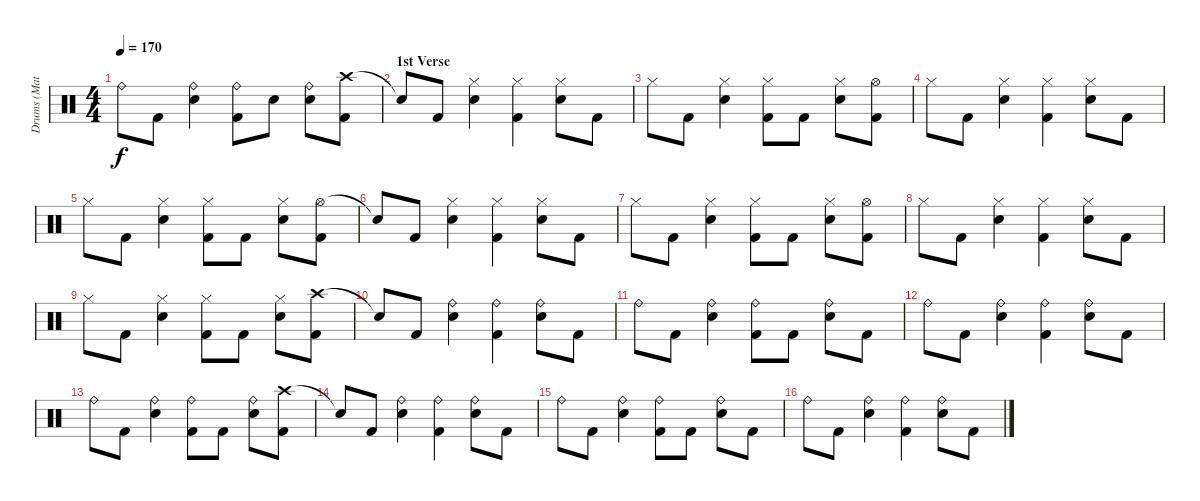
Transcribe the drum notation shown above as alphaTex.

\track ("Drums (Matt)" "Drums (Mat") {instrument percussion}
\staff {score}
\articulation defaults
\ts (4 4)
\tempo 170
\clef neutral
\ks c "Ride (bell)".8{dy f} "Kick (hit) 2".8
("Ride (bell)" "Snare (hit) 2").4 ("Ride (bell)" "Kick (hit) 2").8 "Snare (hit) 2".8 ("Ride (bell)" "Snare (hit) 2").8 ("Crash high (hit)" "Kick (hit) 2").8 |
\section ("" "1st Verse")
"Snare (hit)"{t}.8 "Kick (hit) 2".8 ("Hi-Hat (closed)" "Snare (hit) 2").4 ("Hi-Hat (closed)" "Kick (hit) 2").4 ("Hi-Hat (closed)" "Snare (hit) 2").8 "Kick (hit) 2".8 |
"Hi-Hat (closed)".8 "Kick (hit) 2".8 ("Hi-Hat (closed)" "Snare (hit) 2").4 ("Hi-Hat (closed)" "Kick (hit) 2").8 "Kick (hit) 2".8 ("Hi-Hat (closed)" "Snare (hit) 2").8 ("Hi-Hat (open)" "Kick (hit) 2").8 |
"Hi-Hat (closed)".8 "Kick (hit) 2".8 ("Hi-Hat (closed)" "Snare (hit) 2").4 ("Hi-Hat (closed)" "Kick (hit) 2").4 ("Hi-Hat (closed)" "Snare (hit) 2").8 "Kick (hit) 2".8 |
"Hi-Hat (closed)".8 "Kick (hit) 2".8 ("Hi-Hat (closed)" "Snare (hit) 2").4 ("Hi-Hat (closed)" "Kick (hit) 2").8 "Kick (hit) 2".8 ("Hi-Hat (closed)" "Snare (hit) 2").8 ("Hi-Hat (open)" "Kick (hit) 2").8 |
"Snare (hit)"{t}.8 "Kick (hit) 2".8 ("Hi-Hat (closed)" "Snare (hit) 2").4 ("Hi-Hat (closed)" "Kick (hit) 2").4 ("Hi-Hat (closed)" "Snare (hit) 2").8 "Kick (hit) 2".8 |
"Hi-Hat (closed)".8 "Kick (hit) 2".8 ("Hi-Hat (closed)" "Snare (hit) 2").4 ("Hi-Hat (closed)" "Kick (hit) 2").8 "Kick (hit) 2".8 ("Hi-Hat (closed)" "Snare (hit) 2").8 ("Hi-Hat (open)" "Kick (hit) 2").8 |
"Hi-Hat (closed)".8 "Kick (hit) 2".8 ("Hi-Hat (closed)" "Snare (hit) 2").4 ("Hi-Hat (closed)" "Kick (hit) 2").4 ("Hi-Hat (closed)" "Snare (hit) 2").8 "Kick (hit) 2".8 |
"Hi-Hat (closed)".8 "Kick (hit) 2".8 ("Hi-Hat (closed)" "Snare (hit) 2").4 ("Hi-Hat (closed)" "Kick (hit) 2").8 "Kick (hit) 2".8 ("Hi-Hat (closed)" "Snare (hit) 2").8 ("Crash high (hit)" "Kick (hit) 2").8 |
"Snare (hit)"{t}.8 "Kick (hit) 2".8 ("Ride (bell)" "Snare (hit) 2").4 ("Ride (bell)" "Kick (hit) 2").4 ("Ride (bell)" "Snare (hit) 2").8 "Kick (hit) 2".8 |
"Ride (bell)".8 "Kick (hit) 2".8 ("Ride (bell)" "Snare (hit) 2").4 ("Ride (bell)" "Kick (hit) 2").8 "Kick (hit) 2".8 ("Ride (bell)" "Snare (hit) 2").8 "Kick (hit) 2".8 |
"Ride (bell)".8 "Kick (hit) 2".8 ("Ride (bell)" "Snare (hit) 2").4 ("Ride (bell)" "Kick (hit) 2").4 ("Ride (bell)" "Snare (hit) 2").8 "Kick (hit) 2".8 |
"Ride (bell)".8 "Kick (hit) 2".8 ("Ride (bell)" "Snare (hit) 2").4 ("Ride (bell)" "Kick (hit) 2").8 "Kick (hit) 2".8 ("Ride (bell)" "Snare (hit) 2").8 ("Crash high (hit)" "Kick (hit) 2").8 |
"Snare (hit)"{t}.8 "Kick (hit) 2".8 ("Ride (bell)" "Snare (hit) 2").4 ("Ride (bell)" "Kick (hit) 2").4 ("Ride (bell)" "Snare (hit) 2").8 "Kick (hit) 2".8 |
"Ride (bell)".8 "Kick (hit) 2".8 ("Ride (bell)" "Snare (hit) 2").4 ("Ride (bell)" "Kick (hit) 2").8 "Kick (hit) 2".8 ("Ride (bell)" "Snare (hit) 2").8 "Kick (hit) 2".8 |
"Ride (bell)".8 "Kick (hit) 2".8 ("Ride (bell)" "Snare (hit) 2").4 ("Ride (bell)" "Kick (hit) 2").4 ("Ride (bell)" "Snare (hit) 2").8 "Kick (hit) 2".8
